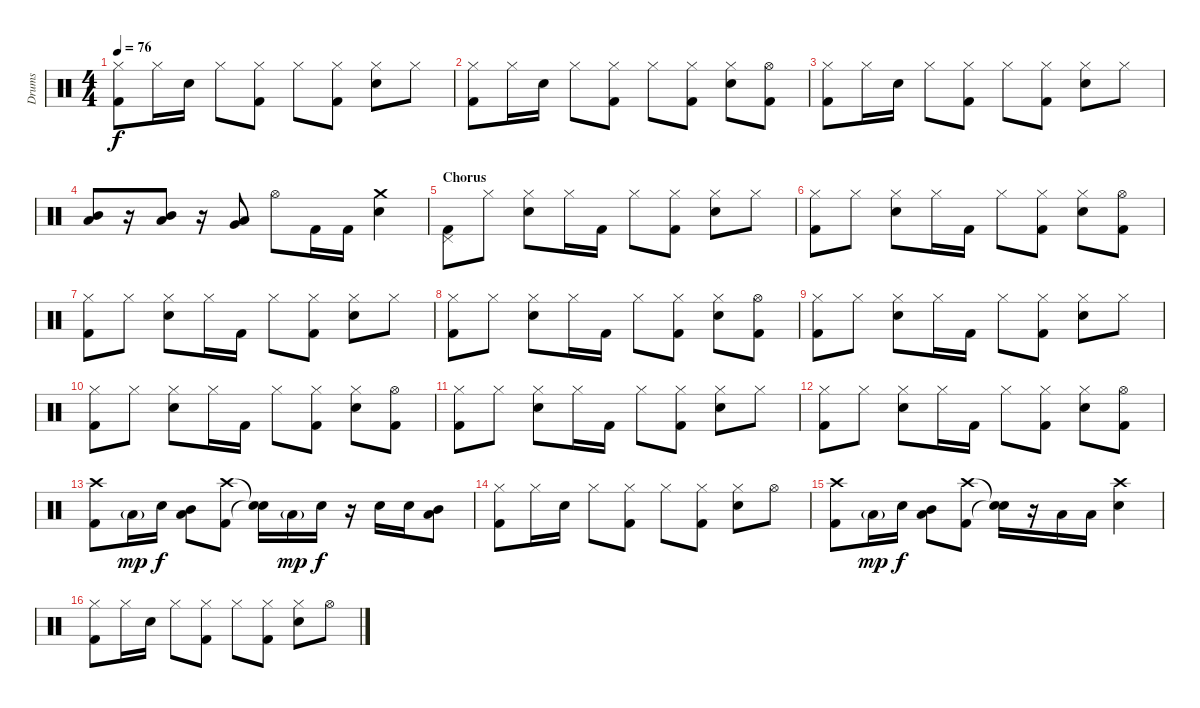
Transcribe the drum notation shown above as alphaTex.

\track ("Drums" "Drums") {instrument percussion}
\staff {score}
\articulation defaults
\ts (4 4)
\tempo 76
\clef neutral
\ks c
("Hi-Hat (closed)" "Kick (hit) 2").8{dy f} "Hi-Hat (closed)".16 "Electric Snare (hit)".16 "Hi-Hat (closed)".8 ("Hi-Hat (closed)" "Kick (hit) 2").8 "Hi-Hat (closed)".8 ("Hi-Hat (closed)" "Kick (hit) 2").8 ("Hi-Hat (closed)" "Electric Snare (hit)").8 "Hi-Hat (closed)".8 |
("Hi-Hat (closed)" "Kick (hit) 2").8 "Hi-Hat (closed)".16 "Electric Snare (hit)".16 "Hi-Hat (closed)".8 ("Hi-Hat (closed)" "Kick (hit) 2").8 "Hi-Hat (closed)".8 ("Hi-Hat (closed)" "Kick (hit) 2").8 ("Hi-Hat (closed)" "Electric Snare (hit)").8 ("Hi-Hat (open)" "Kick (hit) 2").8 |
("Hi-Hat (closed)" "Kick (hit) 2").8 "Hi-Hat (closed)".16 "Electric Snare (hit)".16 "Hi-Hat (closed)".8 ("Hi-Hat (closed)" "Kick (hit) 2").8 "Hi-Hat (closed)".8 ("Hi-Hat (closed)" "Kick (hit) 2").8 ("Hi-Hat (closed)" "Electric Snare (hit)").8 "Hi-Hat (closed)".8 |
("Low Tom (hit)" "Mid Tom (hit)").8 r.16 ("Low Tom (hit)" "Mid Tom (hit)").8 r.16 ("Very Low Tom (hit)" "Low Tom (hit)").8 "Hi-Hat (open)".8 "Kick (hit) 2".16 "Kick (hit) 2".16 ("Crash medium (hit)" "Electric Snare (hit)").4 |
\section ("" "Chorus")
("Pedal Hi-Hat (hit)" "Kick (hit) 2").8 "Hi-Hat (closed)".8 ("Hi-Hat (closed)" "Electric Snare (hit)").8 "Hi-Hat (closed)".16 "Kick (hit) 2".16 "Hi-Hat (closed)".8 ("Hi-Hat (closed)" "Kick (hit) 2").8 ("Hi-Hat (closed)" "Electric Snare (hit)").8 "Hi-Hat (closed)".8 |
("Hi-Hat (closed)" "Kick (hit) 2").8 "Hi-Hat (closed)".8 ("Hi-Hat (closed)" "Electric Snare (hit)").8 "Hi-Hat (closed)".16 "Kick (hit) 2".16 "Hi-Hat (closed)".8 ("Hi-Hat (closed)" "Kick (hit) 2").8 ("Hi-Hat (closed)" "Electric Snare (hit)").8 ("Hi-Hat (open)" "Kick (hit) 2").8 |
("Hi-Hat (closed)" "Kick (hit) 2").8 "Hi-Hat (closed)".8 ("Hi-Hat (closed)" "Electric Snare (hit)").8 "Hi-Hat (closed)".16 "Kick (hit) 2".16 "Hi-Hat (closed)".8 ("Hi-Hat (closed)" "Kick (hit) 2").8 ("Hi-Hat (closed)" "Electric Snare (hit)").8 "Hi-Hat (closed)".8 |
("Hi-Hat (closed)" "Kick (hit) 2").8 "Hi-Hat (closed)".8 ("Hi-Hat (closed)" "Electric Snare (hit)").8 "Hi-Hat (closed)".16 "Kick (hit) 2".16 "Hi-Hat (closed)".8 ("Hi-Hat (closed)" "Kick (hit) 2").8 ("Hi-Hat (closed)" "Electric Snare (hit)").8 ("Hi-Hat (open)" "Kick (hit) 2").8 |
("Hi-Hat (closed)" "Kick (hit) 2").8 "Hi-Hat (closed)".8 ("Hi-Hat (closed)" "Electric Snare (hit)").8 "Hi-Hat (closed)".16 "Kick (hit) 2".16 "Hi-Hat (closed)".8 ("Hi-Hat (closed)" "Kick (hit) 2").8 ("Hi-Hat (closed)" "Electric Snare (hit)").8 "Hi-Hat (closed)".8 |
("Hi-Hat (closed)" "Kick (hit) 2").8 "Hi-Hat (closed)".8 ("Hi-Hat (closed)" "Electric Snare (hit)").8 "Hi-Hat (closed)".16 "Kick (hit) 2".16 "Hi-Hat (closed)".8 ("Hi-Hat (closed)" "Kick (hit) 2").8 ("Hi-Hat (closed)" "Electric Snare (hit)").8 ("Hi-Hat (open)" "Kick (hit) 2").8 |
("Hi-Hat (closed)" "Kick (hit) 2").8 "Hi-Hat (closed)".8 ("Hi-Hat (closed)" "Electric Snare (hit)").8 "Hi-Hat (closed)".16 "Kick (hit) 2".16 "Hi-Hat (closed)".8 ("Hi-Hat (closed)" "Kick (hit) 2").8 ("Hi-Hat (closed)" "Electric Snare (hit)").8 "Hi-Hat (closed)".8 |
("Hi-Hat (closed)" "Kick (hit) 2").8 "Hi-Hat (closed)".8 ("Hi-Hat (closed)" "Electric Snare (hit)").8 "Hi-Hat (closed)".16 "Kick (hit) 2".16 "Hi-Hat (closed)".8 ("Hi-Hat (closed)" "Kick (hit) 2").8 ("Hi-Hat (closed)" "Electric Snare (hit)").8 ("Hi-Hat (open)" "Kick (hit) 2").8 |
\section ("" "")
("Crash high (hit)" "Kick (hit) 2").8 "Low Tom (hit)"{g}.16{dy mp} "Electric Snare (hit)".16{dy f} ("Low Tom (hit)" "Mid Tom (hit)").8 ("Crash high (hit)" "Kick (hit) 2").8 ("Snare (hit)"{t} "Snare (hit)"{t}).16 "Low Tom (hit)"{g}.16{dy mp} "Electric Snare (hit)".16{dy f} r.16 "Electric Snare (hit)".16 "Electric Snare (hit)".16 ("Low Tom (hit)" "Mid Tom (hit)").8 |
("Hi-Hat (closed)" "Kick (hit) 2").8 "Hi-Hat (closed)".16 "Electric Snare (hit)".16 "Hi-Hat (closed)".8 ("Hi-Hat (closed)" "Kick (hit) 2").8 "Hi-Hat (closed)".8 ("Hi-Hat (closed)" "Kick (hit) 2").8 ("Hi-Hat (closed)" "Electric Snare (hit)").8 "Hi-Hat (open)".8 |
("Crash high (hit)" "Kick (hit) 2").8 "Low Tom (hit)"{g}.16{dy mp} "Electric Snare (hit)".16{dy f} ("Low Tom (hit)" "Mid Tom (hit)").8 ("Crash high (hit)" "Kick (hit) 2").8 ("Snare (hit)"{t} "Snare (hit)"{t}).16 r.16 "Low Tom (hit)".16 "Low Tom (hit)".16 ("Crash high (hit)" "Electric Snare (hit)").4 |
("Hi-Hat (closed)" "Kick (hit) 2").8 "Hi-Hat (closed)".16 "Electric Snare (hit)".16 "Hi-Hat (closed)".8 ("Hi-Hat (closed)" "Kick (hit) 2").8 "Hi-Hat (closed)".8 ("Hi-Hat (closed)" "Kick (hit) 2").8 ("Hi-Hat (closed)" "Electric Snare (hit)").8 "Hi-Hat (open)".8
